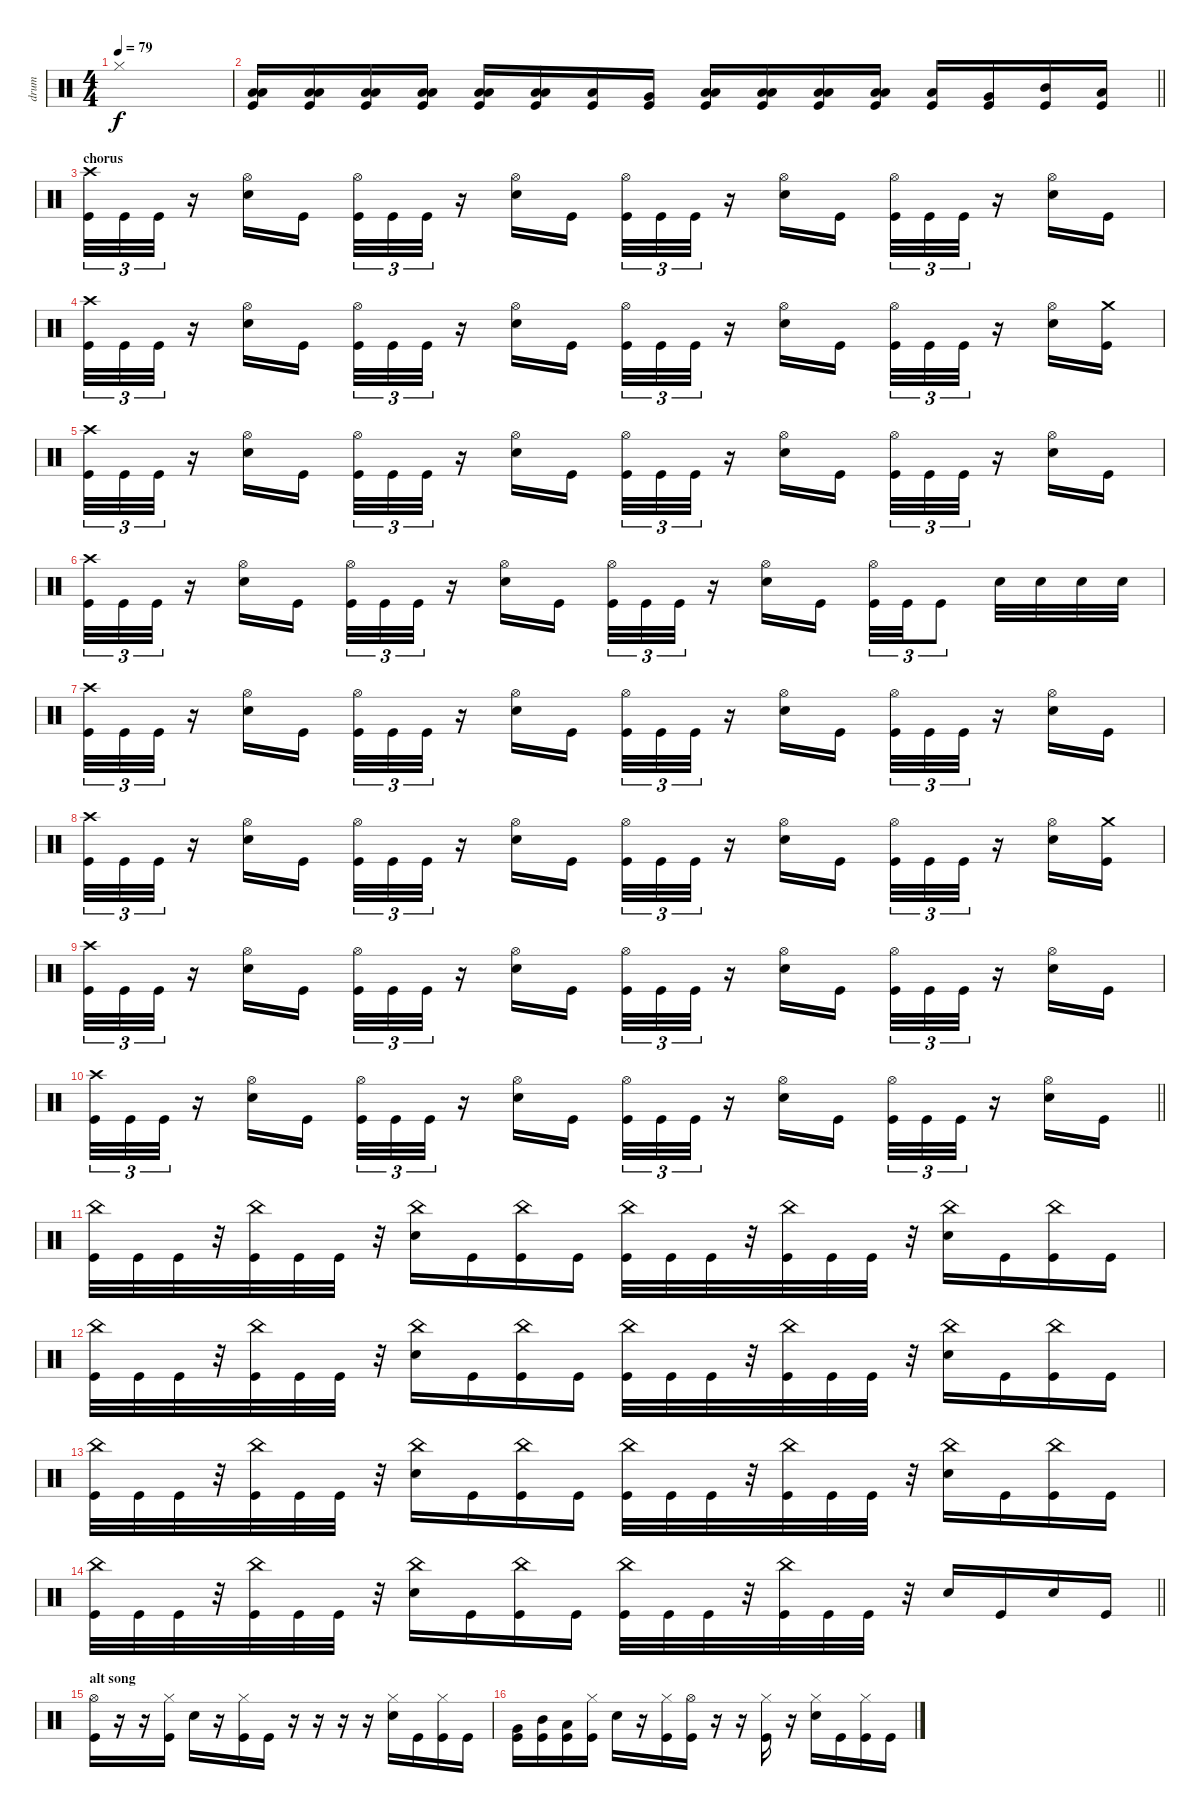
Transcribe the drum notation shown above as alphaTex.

\track ("drum" "drum") {instrument percussion}
\staff {score}
\articulation defaults
\ts (4 4)
\tempo 79
\clef neutral
\ks c "Hi-Hat (closed)".1{dy f}
|
\barLineRight lightlight
("Low Floor Tom (hit)" "Low Tom (hit)" "Kick (hit)").16 ("Low Floor Tom (hit)" "Low Tom (hit)" "Kick (hit)").16 ("Low Floor Tom (hit)" "Low Tom (hit)" "Kick (hit)").16 ("Low Floor Tom (hit)" "Low Tom (hit)" "Kick (hit)").16 ("Low Floor Tom (hit)" "Low Tom (hit)" "Kick (hit)").16 ("Low Floor Tom (hit)" "Low Tom (hit)" "Kick (hit)").16 ("Low Tom (hit)" "Kick (hit)").16 ("Very Low Tom (hit)" "Kick (hit)").16 ("Low Floor Tom (hit)" "Low Tom (hit)" "Kick (hit)").16 ("Low Floor Tom (hit)" "Low Tom (hit)" "Kick (hit)").16 ("Low Floor Tom (hit)" "Low Tom (hit)" "Kick (hit)").16 ("Low Floor Tom (hit)" "Low Tom (hit)" "Kick (hit)").16 ("Low Tom (hit)" "Kick (hit)").16 ("Very Low Tom (hit)" "Kick (hit)").16 ("Mid Tom (hit)" "Kick (hit)").16 ("Low Floor Tom (hit)" "Kick (hit)").16 |
\section ("" "chorus")
("Crash high (hit)" "Kick (hit)").32{tu (3 2)} "Kick (hit)".32{tu (3 2)} "Kick (hit)".32{tu (3 2)} r.16 ("Hi-Hat (open)" "Snare (hit) 2").16 "Kick (hit)".16 ("Hi-Hat (open)" "Kick (hit)").32{tu (3 2)} "Kick (hit)".32{tu (3 2)} "Kick (hit)".32{tu (3 2)} r.16 ("Hi-Hat (open)" "Snare (hit) 2").16 "Kick (hit)".16 ("Hi-Hat (open)" "Kick (hit)").32{tu (3 2)} "Kick (hit)".32{tu (3 2)} "Kick (hit)".32{tu (3 2)} r.16 ("Hi-Hat (open)" "Snare (hit) 2").16 "Kick (hit)".16 ("Hi-Hat (open)" "Kick (hit)").32{tu (3 2)} "Kick (hit)".32{tu (3 2)} "Kick (hit)".32{tu (3 2)} r.16 ("Hi-Hat (open)" "Snare (hit) 2").16 "Kick (hit)".16 |
("Crash high (hit)" "Kick (hit)").32{tu (3 2)} "Kick (hit)".32{tu (3 2)} "Kick (hit)".32{tu (3 2)} r.16 ("Hi-Hat (open)" "Snare (hit) 2").16 "Kick (hit)".16 ("Hi-Hat (open)" "Kick (hit)").32{tu (3 2)} "Kick (hit)".32{tu (3 2)} "Kick (hit)".32{tu (3 2)} r.16 ("Hi-Hat (open)" "Snare (hit) 2").16 "Kick (hit)".16 ("Hi-Hat (open)" "Kick (hit)").32{tu (3 2)} "Kick (hit)".32{tu (3 2)} "Kick (hit)".32{tu (3 2)} r.16 ("Hi-Hat (open)" "Snare (hit) 2").16 "Kick (hit)".16 ("Hi-Hat (open)" "Kick (hit)").32{tu (3 2)} "Kick (hit)".32{tu (3 2)} "Kick (hit)".32{tu (3 2)} r.16 ("Hi-Hat (open)" "Snare (hit) 2").16 ("Crash medium (hit)" "Kick (hit)").16 |
("Crash high (hit)" "Kick (hit)").32{tu (3 2)} "Kick (hit)".32{tu (3 2)} "Kick (hit)".32{tu (3 2)} r.16 ("Hi-Hat (open)" "Snare (hit) 2").16 "Kick (hit)".16 ("Hi-Hat (open)" "Kick (hit)").32{tu (3 2)} "Kick (hit)".32{tu (3 2)} "Kick (hit)".32{tu (3 2)} r.16 ("Hi-Hat (open)" "Snare (hit) 2").16 "Kick (hit)".16 ("Hi-Hat (open)" "Kick (hit)").32{tu (3 2)} "Kick (hit)".32{tu (3 2)} "Kick (hit)".32{tu (3 2)} r.16 ("Hi-Hat (open)" "Snare (hit) 2").16 "Kick (hit)".16 ("Hi-Hat (open)" "Kick (hit)").32{tu (3 2)} "Kick (hit)".32{tu (3 2)} "Kick (hit)".32{tu (3 2)} r.16 ("Hi-Hat (open)" "Snare (hit) 2").16 "Kick (hit)".16 |
("Crash high (hit)" "Kick (hit)").32{tu (3 2)} "Kick (hit)".32{tu (3 2)} "Kick (hit)".32{tu (3 2)} r.16 ("Hi-Hat (open)" "Snare (hit) 2").16 "Kick (hit)".16 ("Hi-Hat (open)" "Kick (hit)").32{tu (3 2)} "Kick (hit)".32{tu (3 2)} "Kick (hit)".32{tu (3 2)} r.16 ("Hi-Hat (open)" "Snare (hit) 2").16 "Kick (hit)".16 ("Hi-Hat (open)" "Kick (hit)").32{tu (3 2)} "Kick (hit)".32{tu (3 2)} "Kick (hit)".32{tu (3 2)} r.16 ("Hi-Hat (open)" "Snare (hit) 2").16 "Kick (hit)".16 ("Hi-Hat (open)" "Kick (hit)").32{tu (3 2)} "Kick (hit)".32{tu (3 2)} "Kick (hit)".8{tu (3 2)} "Snare (hit) 2".32 "Snare (hit) 2".32 "Snare (hit) 2".32 "Snare (hit) 2".32 |
("Crash high (hit)" "Kick (hit)").32{tu (3 2)} "Kick (hit)".32{tu (3 2)} "Kick (hit)".32{tu (3 2)} r.16 ("Hi-Hat (open)" "Snare (hit) 2").16 "Kick (hit)".16 ("Hi-Hat (open)" "Kick (hit)").32{tu (3 2)} "Kick (hit)".32{tu (3 2)} "Kick (hit)".32{tu (3 2)} r.16 ("Hi-Hat (open)" "Snare (hit) 2").16 "Kick (hit)".16 ("Hi-Hat (open)" "Kick (hit)").32{tu (3 2)} "Kick (hit)".32{tu (3 2)} "Kick (hit)".32{tu (3 2)} r.16 ("Hi-Hat (open)" "Snare (hit) 2").16 "Kick (hit)".16 ("Hi-Hat (open)" "Kick (hit)").32{tu (3 2)} "Kick (hit)".32{tu (3 2)} "Kick (hit)".32{tu (3 2)} r.16 ("Hi-Hat (open)" "Snare (hit) 2").16 "Kick (hit)".16 |
("Crash high (hit)" "Kick (hit)").32{tu (3 2)} "Kick (hit)".32{tu (3 2)} "Kick (hit)".32{tu (3 2)} r.16 ("Hi-Hat (open)" "Snare (hit) 2").16 "Kick (hit)".16 ("Hi-Hat (open)" "Kick (hit)").32{tu (3 2)} "Kick (hit)".32{tu (3 2)} "Kick (hit)".32{tu (3 2)} r.16 ("Hi-Hat (open)" "Snare (hit) 2").16 "Kick (hit)".16 ("Hi-Hat (open)" "Kick (hit)").32{tu (3 2)} "Kick (hit)".32{tu (3 2)} "Kick (hit)".32{tu (3 2)} r.16 ("Hi-Hat (open)" "Snare (hit) 2").16 "Kick (hit)".16 ("Hi-Hat (open)" "Kick (hit)").32{tu (3 2)} "Kick (hit)".32{tu (3 2)} "Kick (hit)".32{tu (3 2)} r.16 ("Hi-Hat (open)" "Snare (hit) 2").16 ("Crash medium (hit)" "Kick (hit)").16 |
("Crash high (hit)" "Kick (hit)").32{tu (3 2)} "Kick (hit)".32{tu (3 2)} "Kick (hit)".32{tu (3 2)} r.16 ("Hi-Hat (open)" "Snare (hit) 2").16 "Kick (hit)".16 ("Hi-Hat (open)" "Kick (hit)").32{tu (3 2)} "Kick (hit)".32{tu (3 2)} "Kick (hit)".32{tu (3 2)} r.16 ("Hi-Hat (open)" "Snare (hit) 2").16 "Kick (hit)".16 ("Hi-Hat (open)" "Kick (hit)").32{tu (3 2)} "Kick (hit)".32{tu (3 2)} "Kick (hit)".32{tu (3 2)} r.16 ("Hi-Hat (open)" "Snare (hit) 2").16 "Kick (hit)".16 ("Hi-Hat (open)" "Kick (hit)").32{tu (3 2)} "Kick (hit)".32{tu (3 2)} "Kick (hit)".32{tu (3 2)} r.16 ("Hi-Hat (open)" "Snare (hit) 2").16 "Kick (hit)".16 |
\barLineRight lightlight
("Crash high (hit)" "Kick (hit)").32{tu (3 2)} "Kick (hit)".32{tu (3 2)} "Kick (hit)".32{tu (3 2)} r.16 ("Hi-Hat (open)" "Snare (hit) 2").16 "Kick (hit)".16 ("Hi-Hat (open)" "Kick (hit)").32{tu (3 2)} "Kick (hit)".32{tu (3 2)} "Kick (hit)".32{tu (3 2)} r.16 ("Hi-Hat (open)" "Snare (hit) 2").16 "Kick (hit)".16 ("Hi-Hat (open)" "Kick (hit)").32{tu (3 2)} "Kick (hit)".32{tu (3 2)} "Kick (hit)".32{tu (3 2)} r.16 ("Hi-Hat (open)" "Snare (hit) 2").16 "Kick (hit)".16 ("Hi-Hat (open)" "Kick (hit)").32{tu (3 2)} "Kick (hit)".32{tu (3 2)} "Kick (hit)".32{tu (3 2)} r.16 ("Hi-Hat (open)" "Snare (hit) 2").16 "Kick (hit)".16 |
("China (hit)" "Kick (hit)").32 "Kick (hit)".32 "Kick (hit)".32 r.32 ("China (hit)" "Kick (hit)").32 "Kick (hit)".32 "Kick (hit)".32 r.32 ("China (hit)" "Snare (hit) 2").16 "Kick (hit)".16 ("China (hit)" "Kick (hit)").16 "Kick (hit)".16 ("China (hit)" "Kick (hit)").32 "Kick (hit)".32 "Kick (hit)".32 r.32 ("China (hit)" "Kick (hit)").32 "Kick (hit)".32 "Kick (hit)".32 r.32 ("China (hit)" "Snare (hit) 2").16 "Kick (hit)".16 ("China (hit)" "Kick (hit)").16 "Kick (hit)".16 |
("China (hit)" "Kick (hit)").32 "Kick (hit)".32 "Kick (hit)".32 r.32 ("China (hit)" "Kick (hit)").32 "Kick (hit)".32 "Kick (hit)".32 r.32 ("China (hit)" "Snare (hit) 2").16 "Kick (hit)".16 ("China (hit)" "Kick (hit)").16 "Kick (hit)".16 ("China (hit)" "Kick (hit)").32 "Kick (hit)".32 "Kick (hit)".32 r.32 ("China (hit)" "Kick (hit)").32 "Kick (hit)".32 "Kick (hit)".32 r.32 ("China (hit)" "Snare (hit) 2").16 "Kick (hit)".16 ("China (hit)" "Kick (hit)").16 "Kick (hit)".16 |
("China (hit)" "Kick (hit)").32 "Kick (hit)".32 "Kick (hit)".32 r.32 ("China (hit)" "Kick (hit)").32 "Kick (hit)".32 "Kick (hit)".32 r.32 ("China (hit)" "Snare (hit) 2").16 "Kick (hit)".16 ("China (hit)" "Kick (hit)").16 "Kick (hit)".16 ("China (hit)" "Kick (hit)").32 "Kick (hit)".32 "Kick (hit)".32 r.32 ("China (hit)" "Kick (hit)").32 "Kick (hit)".32 "Kick (hit)".32 r.32 ("China (hit)" "Snare (hit) 2").16 "Kick (hit)".16 ("China (hit)" "Kick (hit)").16 "Kick (hit)".16 |
\barLineRight lightlight
("China (hit)" "Kick (hit)").32 "Kick (hit)".32 "Kick (hit)".32 r.32 ("China (hit)" "Kick (hit)").32 "Kick (hit)".32 "Kick (hit)".32 r.32 ("China (hit)" "Snare (hit) 2").16 "Kick (hit)".16 ("China (hit)" "Kick (hit)").16 "Kick (hit)".16 ("China (hit)" "Kick (hit)").32 "Kick (hit)".32 "Kick (hit)".32 r.32 ("China (hit)" "Kick (hit)").32 "Kick (hit)".32 "Kick (hit)".32 r.32 "Snare (hit) 2".16 "Kick (hit)".16 "Snare (hit) 2".16 "Kick (hit)".16 |
\section ("" "alt song")
("Hi-Hat (open)" "Kick (hit)").16 r.16 r.16 ("Hi-Hat (closed)" "Kick (hit)").16 "Snare (hit) 2".16 r.16 ("Hi-Hat (closed)" "Kick (hit)").16 "Kick (hit)".16 r.16 r.16 r.16 r.16 ("Hi-Hat (closed)" "Snare (hit) 2").16 "Kick (hit)".16 ("Hi-Hat (closed)" "Kick (hit)").16 "Kick (hit)".16 |
("Kick (hit)" "Very Low Tom (hit)").16 ("Kick (hit)" "Mid Tom (hit)").16 ("Kick (hit)" "Low Tom (hit)").16 ("Hi-Hat (closed)" "Kick (hit)").16 "Snare (hit) 2".16 r.16 ("Hi-Hat (closed)" "Kick (hit)").16 ("Hi-Hat (open)" "Kick (hit)").16 r.16 r.16 ("Hi-Hat (closed)" "Kick (hit)").16 r.16 ("Hi-Hat (closed)" "Snare (hit) 2").16 "Kick (hit)".16 ("Hi-Hat (closed)" "Kick (hit)").16 "Kick (hit)".16
